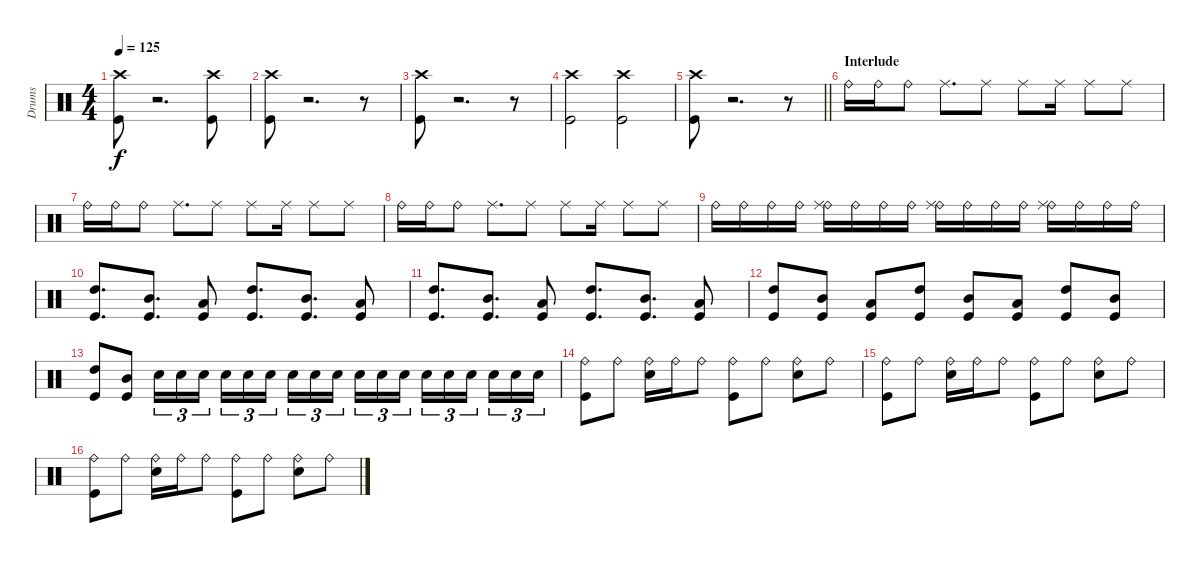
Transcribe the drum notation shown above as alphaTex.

\track ("Drums " "Drums ") {instrument percussion}
\staff {score}
\articulation defaults
\ts (4 4)
\tempo 125
\clef neutral
\ks c
("Crash high (hit)" "Kick (hit)").8{dy f} r.2{d} ("Crash high (hit)" "Kick (hit)").8 |
("Crash high (hit)" "Kick (hit)").8 r.2{d} r.8 |
("Crash high (hit)" "Kick (hit)").8 r.2{d} r.8 |
("Crash high (hit)" "Kick (hit)").2 ("Crash high (hit)" "Kick (hit)").2 |
\barLineRight lightlight
("Crash high (hit)" "Kick (hit)").8 r.2{d} r.8 |
\section ("" "Interlude ")
"Ride (bell)".16 "Ride (bell)".16 "Ride (bell)".8 "Ride (middle)".8{d} "Ride (middle)".8 "Ride (middle)".8 "Ride (middle)".16 "Ride (middle)".8 "Ride (middle)".8 |
"Ride (bell)".16 "Ride (bell)".16 "Ride (bell)".8 "Ride (middle)".8{d} "Ride (middle)".8 "Ride (middle)".8 "Ride (middle)".16 "Ride (middle)".8 "Ride (middle)".8 |
"Ride (bell)".16 "Ride (bell)".16 "Ride (bell)".8 "Ride (middle)".8{d} "Ride (middle)".8 "Ride (middle)".8 "Ride (middle)".16 "Ride (middle)".8 "Ride (middle)".8 |
"Ride (bell)".16 "Ride (bell)".16 "Ride (bell)".16 "Ride (bell)".16 ("Ride (bell)" "Ride (middle)").16 "Ride (bell)".16 "Ride (bell)".16 "Ride (bell)".16 ("Ride (bell)" "Ride (middle)").16 "Ride (bell)".16 "Ride (bell)".16 "Ride (bell)".16 ("Ride (bell)" "Ride (middle)").16 "Ride (bell)".16 "Ride (bell)".16 "Ride (bell)".16 |
("High Tom (hit)" "Kick (hit)").8{d} ("Mid Tom (hit)" "Kick (hit)").8{d} ("Low Tom (hit)" "Kick (hit)").8 ("High Tom (hit)" "Kick (hit)").8{d} ("Mid Tom (hit)" "Kick (hit)").8{d} ("Low Tom (hit)" "Kick (hit)").8 |
("High Tom (hit)" "Kick (hit)").8{d} ("Mid Tom (hit)" "Kick (hit)").8{d} ("Low Tom (hit)" "Kick (hit)").8 ("High Tom (hit)" "Kick (hit)").8{d} ("Mid Tom (hit)" "Kick (hit)").8{d} ("Low Tom (hit)" "Kick (hit)").8 |
("High Tom (hit)" "Kick (hit)").8 ("Mid Tom (hit)" "Kick (hit)").8 ("Low Tom (hit)" "Kick (hit)").8 ("High Tom (hit)" "Kick (hit)").8 ("Mid Tom (hit)" "Kick (hit)").8 ("Low Tom (hit)" "Kick (hit)").8 ("High Tom (hit)" "Kick (hit)").8 ("Mid Tom (hit)" "Kick (hit)").8 |
("High Tom (hit)" "Kick (hit)").8 ("Mid Tom (hit)" "Kick (hit)").8 "Electric Snare (hit)".16{tu (3 2)} "Electric Snare (hit)".16{tu (3 2)} "Electric Snare (hit)".16{tu (3 2) beam splitsecondary} "Electric Snare (hit)".16{tu (3 2)} "Electric Snare (hit)".16{tu (3 2)} "Electric Snare (hit)".16{tu (3 2)} "Electric Snare (hit)".16{tu (3 2)} "Electric Snare (hit)".16{tu (3 2)} "Electric Snare (hit)".16{tu (3 2) beam splitsecondary} "Electric Snare (hit)".16{tu (3 2)} "Electric Snare (hit)".16{tu (3 2)} "Electric Snare (hit)".16{tu (3 2)} "Electric Snare (hit)".16{tu (3 2)} "Electric Snare (hit)".16{tu (3 2)} "Electric Snare (hit)".16{tu (3 2) beam splitsecondary} "Electric Snare (hit)".16{tu (3 2)} "Electric Snare (hit)".16{tu (3 2)} "Electric Snare (hit)".16{tu (3 2)} |
("Ride (bell)" "Kick (hit)").8 "Ride (bell)".8 ("Ride (bell)" "Electric Snare (hit)").16 "Ride (bell)".16 "Ride (bell)".8 ("Ride (bell)" "Kick (hit)").8 "Ride (bell)".8 ("Ride (bell)" "Electric Snare (hit)").8 "Ride (bell)".8 |
("Ride (bell)" "Kick (hit)").8 "Ride (bell)".8 ("Ride (bell)" "Electric Snare (hit)").16 "Ride (bell)".16 "Ride (bell)".8 ("Ride (bell)" "Kick (hit)").8 "Ride (bell)".8 ("Ride (bell)" "Electric Snare (hit)").8 "Ride (bell)".8 |
("Ride (bell)" "Kick (hit)").8 "Ride (bell)".8 ("Ride (bell)" "Electric Snare (hit)").16 "Ride (bell)".16 "Ride (bell)".8 ("Ride (bell)" "Kick (hit)").8 "Ride (bell)".8 ("Ride (bell)" "Electric Snare (hit)").8 "Ride (bell)".8
